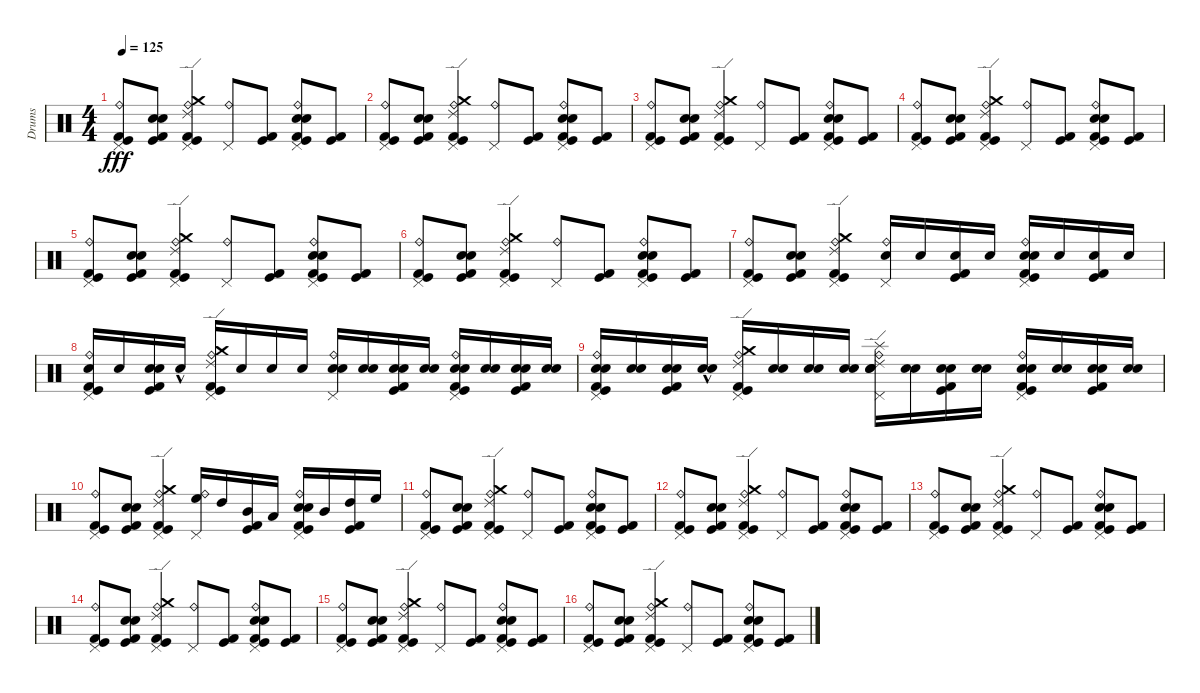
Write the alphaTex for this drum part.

\track ("Drums" "Drums") {instrument percussion}
\staff {score}
\articulation defaults
\ts (4 4)
\tempo 125
\clef neutral
\ks c
("Pedal Hi-Hat (hit)" "Kick (hit) 2" "Kick (hit)" "Ride (bell)").8{dy fff} ("Electric Snare (hit)" "Snare (hit) 2" "Kick (hit)" "Kick (hit) 2").8 ("Pedal Hi-Hat (hit)" "Kick (hit) 2" "Kick (hit)" "Ride (bell)" "Crash medium (hit)" "Ride (edge) 2").4 ("Pedal Hi-Hat (hit)" "Ride (bell)").8 ("Kick (hit) 2" "Kick (hit)").8 ("Pedal Hi-Hat (hit)" "Electric Snare (hit)" "Snare (hit) 2" "Kick (hit) 2" "Kick (hit)" "Ride (bell)").8 ("Kick (hit) 2" "Kick (hit)").8 |
("Pedal Hi-Hat (hit)" "Kick (hit) 2" "Kick (hit)" "Ride (bell)").8 ("Electric Snare (hit)" "Snare (hit) 2" "Kick (hit)" "Kick (hit) 2").8 ("Kick (hit) 2" "Kick (hit)" "Ride (bell)" "Crash medium (hit)" "Ride (edge) 2" "Pedal Hi-Hat (hit)").4 ("Pedal Hi-Hat (hit)" "Ride (bell)").8 ("Kick (hit) 2" "Kick (hit)").8 ("Pedal Hi-Hat (hit)" "Electric Snare (hit)" "Snare (hit) 2" "Kick (hit) 2" "Kick (hit)" "Ride (bell)").8 ("Kick (hit) 2" "Kick (hit)").8 |
("Pedal Hi-Hat (hit)" "Kick (hit) 2" "Kick (hit)" "Ride (bell)").8 ("Electric Snare (hit)" "Snare (hit) 2" "Kick (hit)" "Kick (hit) 2").8 ("Kick (hit) 2" "Kick (hit)" "Ride (bell)" "Crash medium (hit)" "Ride (edge) 2" "Pedal Hi-Hat (hit)").4 ("Pedal Hi-Hat (hit)" "Ride (bell)").8 ("Kick (hit) 2" "Kick (hit)").8 ("Pedal Hi-Hat (hit)" "Electric Snare (hit)" "Snare (hit) 2" "Kick (hit) 2" "Kick (hit)" "Ride (bell)").8 ("Kick (hit) 2" "Kick (hit)").8 |
("Pedal Hi-Hat (hit)" "Kick (hit) 2" "Kick (hit)" "Ride (bell)").8 ("Electric Snare (hit)" "Snare (hit) 2" "Kick (hit)" "Kick (hit) 2").8 ("Kick (hit) 2" "Kick (hit)" "Ride (bell)" "Crash medium (hit)" "Ride (edge) 2" "Pedal Hi-Hat (hit)").4 ("Pedal Hi-Hat (hit)" "Ride (bell)").8 ("Kick (hit) 2" "Kick (hit)").8 ("Pedal Hi-Hat (hit)" "Electric Snare (hit)" "Snare (hit) 2" "Kick (hit) 2" "Kick (hit)" "Ride (bell)").8 ("Kick (hit) 2" "Kick (hit)").8 |
("Pedal Hi-Hat (hit)" "Kick (hit) 2" "Kick (hit)" "Ride (bell)").8 ("Electric Snare (hit)" "Snare (hit) 2" "Kick (hit)" "Kick (hit) 2").8 ("Kick (hit) 2" "Kick (hit)" "Ride (bell)" "Crash medium (hit)" "Ride (edge) 2" "Pedal Hi-Hat (hit)").4 ("Pedal Hi-Hat (hit)" "Ride (bell)").8 ("Kick (hit) 2" "Kick (hit)").8 ("Pedal Hi-Hat (hit)" "Electric Snare (hit)" "Snare (hit) 2" "Kick (hit) 2" "Kick (hit)" "Ride (bell)").8 ("Kick (hit) 2" "Kick (hit)").8 |
("Pedal Hi-Hat (hit)" "Kick (hit) 2" "Kick (hit)" "Ride (bell)").8 ("Electric Snare (hit)" "Snare (hit) 2" "Kick (hit)" "Kick (hit) 2").8 ("Kick (hit) 2" "Kick (hit)" "Ride (bell)" "Crash medium (hit)" "Ride (edge) 2" "Pedal Hi-Hat (hit)").4 ("Pedal Hi-Hat (hit)" "Ride (bell)").8 ("Kick (hit) 2" "Kick (hit)").8 ("Pedal Hi-Hat (hit)" "Electric Snare (hit)" "Snare (hit) 2" "Kick (hit) 2" "Kick (hit)" "Ride (bell)").8 ("Kick (hit) 2" "Kick (hit)").8 |
("Pedal Hi-Hat (hit)" "Kick (hit) 2" "Kick (hit)" "Ride (bell)").8 ("Electric Snare (hit)" "Snare (hit) 2" "Kick (hit)" "Kick (hit) 2").8 ("Pedal Hi-Hat (hit)" "Kick (hit) 2" "Kick (hit)" "Ride (bell)" "Crash medium (hit)" "Ride (edge) 2").4 ("Pedal Hi-Hat (hit)" "Ride (bell)" "Electric Snare (hit)").16 "Electric Snare (hit)".16 ("Kick (hit) 2" "Kick (hit)" "Electric Snare (hit)").16 "Electric Snare (hit)".16 ("Pedal Hi-Hat (hit)" "Electric Snare (hit)" "Snare (hit) 2" "Kick (hit) 2" "Kick (hit)" "Ride (bell)").16 "Electric Snare (hit)".16 ("Kick (hit) 2" "Kick (hit)" "Electric Snare (hit)").16 "Electric Snare (hit)".16 |
("Kick (hit) 2" "Kick (hit)" "Ride (bell)" "Electric Snare (hit)" "Pedal Hi-Hat (hit)").16 "Electric Snare (hit)".16 ("Electric Snare (hit)" "Snare (hit) 2" "Kick (hit)" "Kick (hit) 2").16 "Electric Snare (hit)"{hac}.16 ("Pedal Hi-Hat (hit)" "Kick (hit) 2" "Kick (hit)" "Ride (bell)" "Crash medium (hit)" "Ride (edge) 2").16 "Electric Snare (hit)".16 "Electric Snare (hit)".16 "Electric Snare (hit)".16 ("Pedal Hi-Hat (hit)" "Ride (bell)" "Electric Snare (hit)" "Snare (hit) 2").16 ("Electric Snare (hit)" "Snare (hit) 2").16 ("Kick (hit) 2" "Kick (hit)" "Electric Snare (hit)" "Snare (hit) 2").16 ("Electric Snare (hit)" "Snare (hit) 2").16 ("Pedal Hi-Hat (hit)" "Electric Snare (hit)" "Snare (hit) 2" "Kick (hit) 2" "Kick (hit)" "Ride (bell)").16 ("Electric Snare (hit)" "Snare (hit) 2").16 ("Kick (hit) 2" "Kick (hit)" "Electric Snare (hit)" "Snare (hit) 2").16 ("Electric Snare (hit)" "Snare (hit) 2").16 |
("Pedal Hi-Hat (hit)" "Kick (hit) 2" "Kick (hit)" "Ride (bell)" "Electric Snare (hit)" "Snare (hit) 2").16 ("Electric Snare (hit)" "Snare (hit) 2").16 ("Electric Snare (hit)" "Snare (hit) 2" "Kick (hit)" "Kick (hit) 2").16 ("Electric Snare (hit)"{hac} "Snare (hit) 2"{hac}).16 ("Pedal Hi-Hat (hit)" "Kick (hit) 2" "Kick (hit)" "Ride (bell)" "Crash medium (hit)" "Ride (edge) 2").16 ("Electric Snare (hit)" "Snare (hit) 2").16 ("Electric Snare (hit)" "Snare (hit) 2").16 ("Electric Snare (hit)" "Snare (hit) 2").16 ("Pedal Hi-Hat (hit)" "Ride (bell)" "Electric Snare (hit)" "Snare (hit) 2" "Ride (edge) 2" "Splash (hit)").16 ("Electric Snare (hit)" "Snare (hit) 2").16 ("Kick (hit) 2" "Kick (hit)" "Electric Snare (hit)" "Snare (hit) 2").16 ("Electric Snare (hit)" "Snare (hit) 2").16 ("Pedal Hi-Hat (hit)" "Electric Snare (hit)" "Snare (hit) 2" "Kick (hit) 2" "Kick (hit)" "Ride (bell)").16 ("Electric Snare (hit)" "Snare (hit) 2").16 ("Kick (hit) 2" "Kick (hit)" "Electric Snare (hit)" "Snare (hit) 2").16 ("Electric Snare (hit)" "Snare (hit) 2").16 |
("Pedal Hi-Hat (hit)" "Kick (hit) 2" "Kick (hit)" "Ride (bell)").8 ("Electric Snare (hit)" "Snare (hit) 2" "Kick (hit)" "Kick (hit) 2").8 ("Pedal Hi-Hat (hit)" "Kick (hit) 2" "Kick (hit)" "Ride (bell)" "Crash medium (hit)" "Ride (edge) 2").4 ("Pedal Hi-Hat (hit)" "Ride (bell)" "High Floor Tom (hit)").16 "High Tom (hit)".16 ("Kick (hit) 2" "Kick (hit)" "Mid Tom (hit)").16 "Low Tom (hit)".16 ("Pedal Hi-Hat (hit)" "Electric Snare (hit)" "Snare (hit) 2" "Kick (hit) 2" "Kick (hit)" "Ride (bell)").16 "Mid Tom (hit)".16 ("Kick (hit) 2" "Kick (hit)" "High Tom (hit)").16 "High Floor Tom (hit)".16 |
("Pedal Hi-Hat (hit)" "Kick (hit) 2" "Kick (hit)" "Ride (bell)").8 ("Electric Snare (hit)" "Snare (hit) 2" "Kick (hit)" "Kick (hit) 2").8 ("Pedal Hi-Hat (hit)" "Kick (hit) 2" "Kick (hit)" "Ride (bell)" "Crash medium (hit)" "Ride (edge) 2").4 ("Pedal Hi-Hat (hit)" "Ride (bell)").8 ("Kick (hit) 2" "Kick (hit)").8 ("Pedal Hi-Hat (hit)" "Electric Snare (hit)" "Snare (hit) 2" "Kick (hit) 2" "Kick (hit)" "Ride (bell)").8 ("Kick (hit) 2" "Kick (hit)").8 |
("Pedal Hi-Hat (hit)" "Kick (hit) 2" "Kick (hit)" "Ride (bell)").8 ("Electric Snare (hit)" "Snare (hit) 2" "Kick (hit)" "Kick (hit) 2").8 ("Pedal Hi-Hat (hit)" "Kick (hit) 2" "Kick (hit)" "Ride (bell)" "Crash medium (hit)" "Ride (edge) 2").4 ("Pedal Hi-Hat (hit)" "Ride (bell)").8 ("Kick (hit) 2" "Kick (hit)").8 ("Pedal Hi-Hat (hit)" "Electric Snare (hit)" "Snare (hit) 2" "Kick (hit) 2" "Kick (hit)" "Ride (bell)").8 ("Kick (hit) 2" "Kick (hit)").8 |
("Pedal Hi-Hat (hit)" "Kick (hit) 2" "Kick (hit)" "Ride (bell)").8 ("Electric Snare (hit)" "Snare (hit) 2" "Kick (hit)" "Kick (hit) 2").8 ("Kick (hit) 2" "Kick (hit)" "Ride (bell)" "Crash medium (hit)" "Ride (edge) 2" "Pedal Hi-Hat (hit)").4 ("Ride (bell)" "Pedal Hi-Hat (hit)").8 ("Kick (hit) 2" "Kick (hit)").8 ("Pedal Hi-Hat (hit)" "Electric Snare (hit)" "Snare (hit) 2" "Kick (hit) 2" "Kick (hit)" "Ride (bell)").8 ("Kick (hit) 2" "Kick (hit)").8 |
("Pedal Hi-Hat (hit)" "Kick (hit) 2" "Kick (hit)" "Ride (bell)").8 ("Electric Snare (hit)" "Snare (hit) 2" "Kick (hit)" "Kick (hit) 2").8 ("Pedal Hi-Hat (hit)" "Kick (hit) 2" "Kick (hit)" "Ride (bell)" "Crash medium (hit)" "Ride (edge) 2").4 ("Pedal Hi-Hat (hit)" "Ride (bell)").8 ("Kick (hit) 2" "Kick (hit)").8 ("Pedal Hi-Hat (hit)" "Electric Snare (hit)" "Snare (hit) 2" "Kick (hit) 2" "Kick (hit)" "Ride (bell)").8 ("Kick (hit) 2" "Kick (hit)").8 |
("Pedal Hi-Hat (hit)" "Kick (hit) 2" "Kick (hit)" "Ride (bell)").8 ("Electric Snare (hit)" "Snare (hit) 2" "Kick (hit)" "Kick (hit) 2").8 ("Pedal Hi-Hat (hit)" "Kick (hit) 2" "Kick (hit)" "Ride (bell)" "Crash medium (hit)" "Ride (edge) 2").4 ("Pedal Hi-Hat (hit)" "Ride (bell)").8 ("Kick (hit) 2" "Kick (hit)").8 ("Pedal Hi-Hat (hit)" "Electric Snare (hit)" "Snare (hit) 2" "Kick (hit) 2" "Kick (hit)" "Ride (bell)").8 ("Kick (hit) 2" "Kick (hit)").8 |
("Pedal Hi-Hat (hit)" "Kick (hit) 2" "Kick (hit)" "Ride (bell)").8 ("Electric Snare (hit)" "Snare (hit) 2" "Kick (hit)" "Kick (hit) 2").8 ("Kick (hit) 2" "Kick (hit)" "Ride (bell)" "Crash medium (hit)" "Ride (edge) 2" "Pedal Hi-Hat (hit)").4 ("Pedal Hi-Hat (hit)" "Ride (bell)").8 ("Kick (hit) 2" "Kick (hit)").8 ("Pedal Hi-Hat (hit)" "Electric Snare (hit)" "Snare (hit) 2" "Kick (hit) 2" "Kick (hit)" "Ride (bell)").8 ("Kick (hit) 2" "Kick (hit)").8
